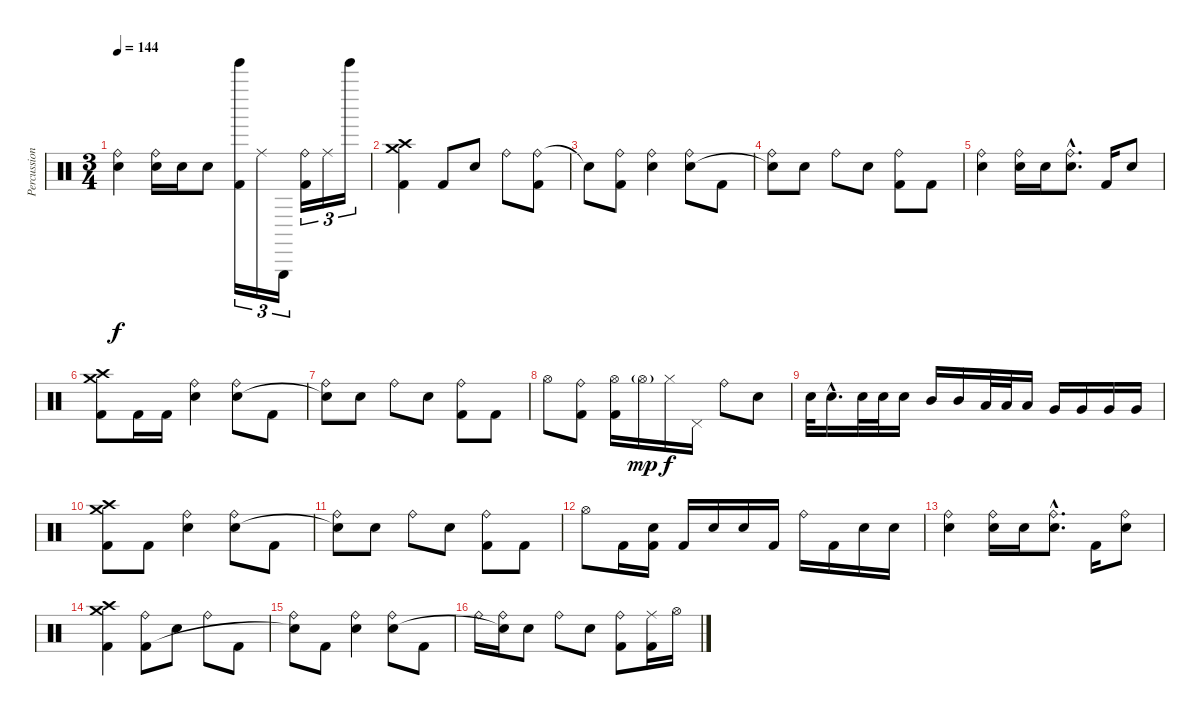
\track ("Percussion" "Percussion") {instrument percussion}
\staff {score}
\articulation defaults
\ts (3 4)
\tempo 144
\clef neutral
\ks c
("Ride (bell)" "Electric Snare (hit)").4{dy f} ("Ride (bell)" "Electric Snare (hit)").16 "Electric Snare (hit)".16 "Electric Snare (hit)".8 ("Tinkle Bell (hit)" "Kick (hit) 2").16{tu (3 2)} "Ride (middle)".16{tu (3 2)} "Triangle (hit)".16{tu (3 2)} ("Ride (bell)" "Kick (hit) 2").16{tu (3 2)} "Ride (middle)".16{tu (3 2)} "Tinkle Bell (hit)".16{tu (3 2)} |
("Crash high (hit)" "Crash medium (hit)" "Kick (hit) 2").4 "Kick (hit) 2".8 "Electric Snare (hit)".8 "Ride (bell)".8 ("Ride (bell)" "Kick (hit) 2").8 |
"Snare (hit)"{t}.8 ("Ride (bell)" "Kick (hit) 2").8 ("Ride (bell)" "Electric Snare (hit)").4 ("Ride (bell)" "Electric Snare (hit)").8 "Kick (hit) 2".8 |
("Ride (bell)" "Snare (hit)"{t}).8 "Electric Snare (hit)".8 "Ride (bell)".8 "Electric Snare (hit)".8 ("Ride (bell)" "Kick (hit) 2").8 "Kick (hit) 2".8 |
("Ride (bell)" "Electric Snare (hit)").4 ("Ride (bell)" "Electric Snare (hit)").16 "Electric Snare (hit)".16 ("Ride (bell)"{hac} "Electric Snare (hit)"{hac}).8{d} "Kick (hit) 2".16 "Electric Snare (hit)".8 |
("Crash high (hit)" "Crash medium (hit)" "Kick (hit) 2").8 "Kick (hit) 2".16 "Kick (hit) 2".16 ("Ride (bell)" "Electric Snare (hit)").4 ("Ride (bell)" "Electric Snare (hit)").8 "Kick (hit) 2".8 |
("Ride (bell)" "Snare (hit)"{t}).8 "Electric Snare (hit)".8 "Ride (bell)".8 "Electric Snare (hit)".8 ("Ride (bell)" "Kick (hit) 2").8 "Kick (hit) 2".8 |
"Hi-Hat (open)".8 ("Ride (bell)" "Kick (hit) 2").8 ("Hi-Hat (open)" "Kick (hit) 2").16 "Hi-Hat (open)"{g}.16{dy mp} "Hi-Hat (closed)".16{dy f} "Pedal Hi-Hat (hit)".16 "Ride (bell)".8 "Electric Snare (hit)".8 |
"Electric Snare (hit)".32 "Electric Snare (hit)"{hac}.16{d} "Electric Snare (hit)".32 "Electric Snare (hit)".32 "Electric Snare (hit)".16 "Mid Tom (hit)".16 "Mid Tom (hit)".16 "Low Tom (hit)".32 "Low Tom (hit)".32 "Low Tom (hit)".16 "Very Low Tom (hit)".16 "Very Low Tom (hit)".16 "Very Low Tom (hit)".16 "Very Low Tom (hit)".16 |
("Crash medium (hit)" "Crash high (hit)" "Kick (hit) 2").8 "Kick (hit) 2".8 ("Ride (bell)" "Electric Snare (hit)").4 ("Ride (bell)" "Electric Snare (hit)").8 "Kick (hit) 2".8 |
("Ride (bell)" "Snare (hit)"{t}).8 "Electric Snare (hit)".8 "Ride (bell)".8 "Electric Snare (hit)".8 ("Ride (bell)" "Kick (hit) 2").8 "Kick (hit) 2".8 |
"Hi-Hat (open)".8 "Kick (hit) 2".16 ("Electric Snare (hit)" "Kick (hit) 2").16 "Kick (hit) 2".16 "Electric Snare (hit)".16 "Electric Snare (hit)".16 "Kick (hit) 2".16 "Ride (bell)".16 "Kick (hit) 2".16 "Electric Snare (hit)".16 "Electric Snare (hit)".16 |
("Ride (bell)" "Electric Snare (hit)").4 ("Ride (bell)" "Electric Snare (hit)").16 "Electric Snare (hit)".16 ("Ride (bell)"{hac} "Electric Snare (hit)"{hac}).8{d} "Kick (hit) 2".16 ("Ride (bell)" "Electric Snare (hit)").8 |
("Crash high (hit)" "Crash medium (hit)" "Kick (hit) 2").4 ("Ride (bell)" "Kick (hit) 2").8 "Electric Snare (hit)".8 "Ride (bell)".8 "Kick (hit) 2".8 |
("Ride (bell)" "Snare (hit)"{t}).8 "Kick (hit) 2".8 ("Ride (bell)" "Electric Snare (hit)").4 ("Ride (bell)" "Electric Snare (hit)").8 "Kick (hit) 2".8 |
"Ride (bell)".16 ("Ride (bell)" "Snare (hit)"{t}).16 "Electric Snare (hit)".8 "Ride (bell)".8 "Electric Snare (hit)".8 ("Ride (bell)" "Kick (hit) 2").8 ("Ride (middle)" "Kick (hit) 2").16 "Hi-Hat (open)".16
